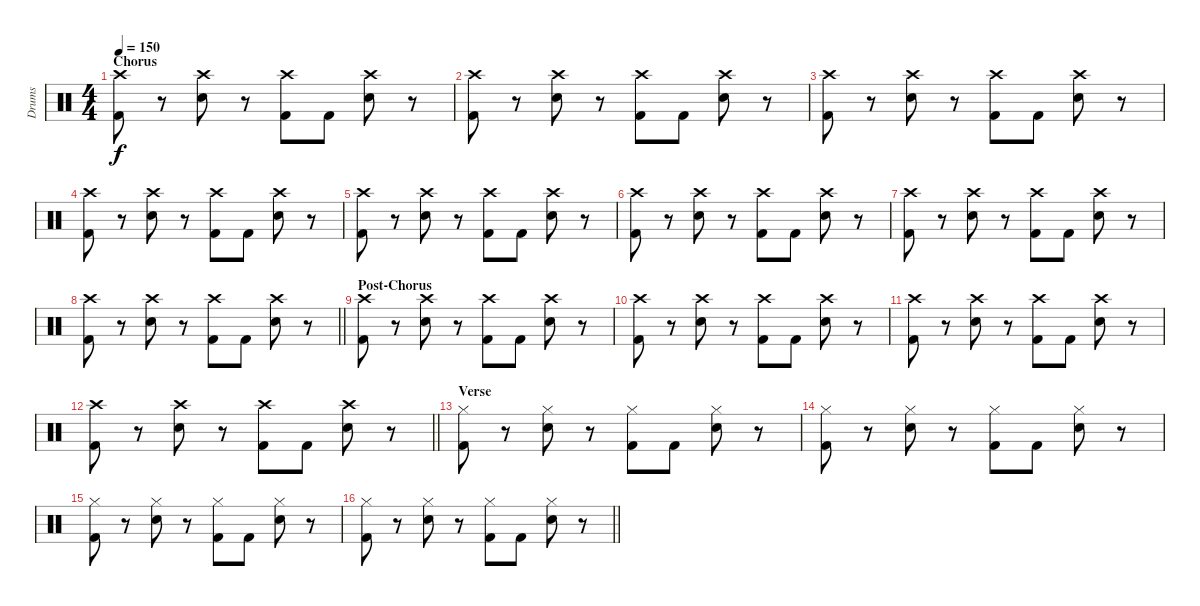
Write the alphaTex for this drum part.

\track ("Drums" "Drums") {instrument percussion}
\staff {score}
\articulation defaults
\ts (4 4)
\section ("" "Chorus")
\tempo 150
\clef neutral
\ks c
("Crash high (hit)" "Kick (hit) 2").8{dy f} r.8 ("Crash high (hit)" "Snare (hit) 2").8 r.8 ("Crash high (hit)" "Kick (hit) 2").8 "Kick (hit) 2".8 ("Crash high (hit)" "Snare (hit) 2").8 r.8 |
("Crash high (hit)" "Kick (hit) 2").8 r.8 ("Crash high (hit)" "Snare (hit) 2").8 r.8 ("Crash high (hit)" "Kick (hit) 2").8 "Kick (hit) 2".8 ("Crash high (hit)" "Snare (hit) 2").8 r.8 |
("Crash high (hit)" "Kick (hit) 2").8 r.8 ("Crash high (hit)" "Snare (hit) 2").8 r.8 ("Crash high (hit)" "Kick (hit) 2").8 "Kick (hit) 2".8 ("Crash high (hit)" "Snare (hit) 2").8 r.8 |
("Crash high (hit)" "Kick (hit) 2").8 r.8 ("Crash high (hit)" "Snare (hit) 2").8 r.8 ("Crash high (hit)" "Kick (hit) 2").8 "Kick (hit) 2".8 ("Crash high (hit)" "Snare (hit) 2").8 r.8 |
("Crash high (hit)" "Kick (hit) 2").8 r.8 ("Crash high (hit)" "Snare (hit) 2").8 r.8 ("Crash high (hit)" "Kick (hit) 2").8 "Kick (hit) 2".8 ("Crash high (hit)" "Snare (hit) 2").8 r.8 |
("Crash high (hit)" "Kick (hit) 2").8 r.8 ("Crash high (hit)" "Snare (hit) 2").8 r.8 ("Crash high (hit)" "Kick (hit) 2").8 "Kick (hit) 2".8 ("Crash high (hit)" "Snare (hit) 2").8 r.8 |
("Crash high (hit)" "Kick (hit) 2").8 r.8 ("Crash high (hit)" "Snare (hit) 2").8 r.8 ("Crash high (hit)" "Kick (hit) 2").8 "Kick (hit) 2".8 ("Crash high (hit)" "Snare (hit) 2").8 r.8 |
\barLineRight lightlight
("Crash high (hit)" "Kick (hit) 2").8 r.8 ("Crash high (hit)" "Snare (hit) 2").8 r.8 ("Crash high (hit)" "Kick (hit) 2").8 "Kick (hit) 2".8 ("Crash high (hit)" "Snare (hit) 2").8 r.8 |
\section ("" "Post-Chorus")
("Crash high (hit)" "Kick (hit) 2").8 r.8 ("Crash high (hit)" "Snare (hit) 2").8 r.8 ("Crash high (hit)" "Kick (hit) 2").8 "Kick (hit) 2".8 ("Crash high (hit)" "Snare (hit) 2").8 r.8 |
("Crash high (hit)" "Kick (hit) 2").8 r.8 ("Crash high (hit)" "Snare (hit) 2").8 r.8 ("Crash high (hit)" "Kick (hit) 2").8 "Kick (hit) 2".8 ("Crash high (hit)" "Snare (hit) 2").8 r.8 |
("Crash high (hit)" "Kick (hit) 2").8 r.8 ("Crash high (hit)" "Snare (hit) 2").8 r.8 ("Crash high (hit)" "Kick (hit) 2").8 "Kick (hit) 2".8 ("Crash high (hit)" "Snare (hit) 2").8 r.8 |
\barLineRight lightlight
("Crash high (hit)" "Kick (hit) 2").8 r.8 ("Crash high (hit)" "Snare (hit) 2").8 r.8 ("Crash high (hit)" "Kick (hit) 2").8 "Kick (hit) 2".8 ("Crash high (hit)" "Snare (hit) 2").8 r.8 |
\section ("" "Verse")
("Hi-Hat (closed)" "Kick (hit) 2").8 r.8 ("Hi-Hat (closed)" "Snare (hit) 2").8 r.8 ("Hi-Hat (closed)" "Kick (hit) 2").8 "Kick (hit) 2".8 ("Hi-Hat (closed)" "Snare (hit) 2").8 r.8 |
("Hi-Hat (closed)" "Kick (hit) 2").8 r.8 ("Hi-Hat (closed)" "Snare (hit) 2").8 r.8 ("Hi-Hat (closed)" "Kick (hit) 2").8 "Kick (hit) 2".8 ("Hi-Hat (closed)" "Snare (hit) 2").8 r.8 |
("Hi-Hat (closed)" "Kick (hit) 2").8 r.8 ("Hi-Hat (closed)" "Snare (hit) 2").8 r.8 ("Hi-Hat (closed)" "Kick (hit) 2").8 "Kick (hit) 2".8 ("Hi-Hat (closed)" "Snare (hit) 2").8 r.8 |
\barLineRight lightlight
("Hi-Hat (closed)" "Kick (hit) 2").8 r.8 ("Hi-Hat (closed)" "Snare (hit) 2").8 r.8 ("Hi-Hat (closed)" "Kick (hit) 2").8 "Kick (hit) 2".8 ("Hi-Hat (closed)" "Snare (hit) 2").8 r.8
